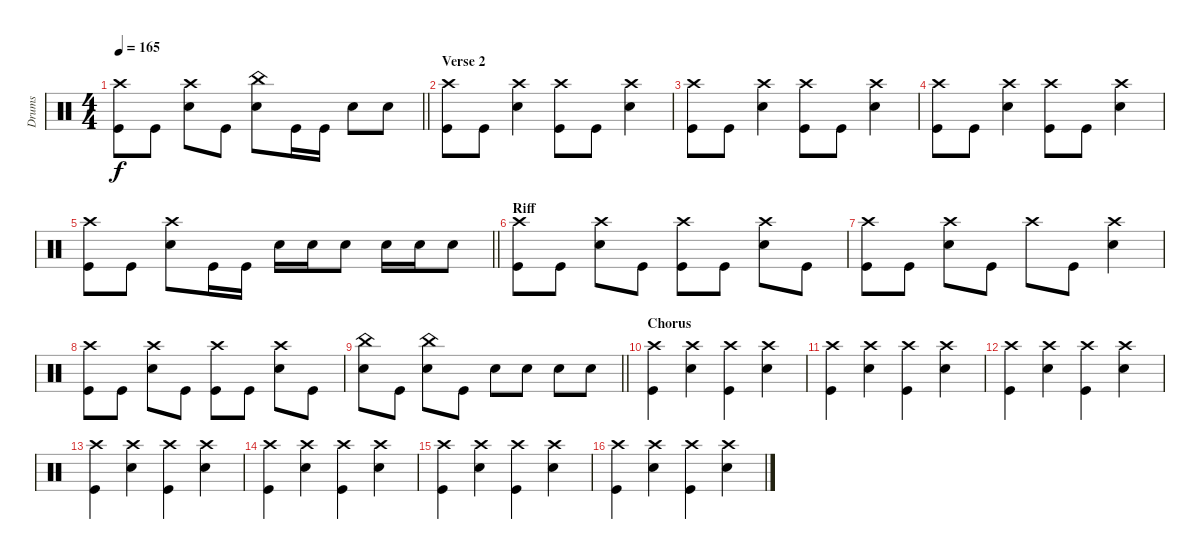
\track ("Drums" "Drums") {instrument percussion}
\staff {score}
\articulation defaults
\ts (4 4)
\tempo 165
\clef neutral
\barLineRight lightlight
\ks c
("Kick (hit)" "Crash high (hit)").8{dy f} "Kick (hit)".8 ("Snare (hit) 2" "Crash high (hit)").8 "Kick (hit)".8 ("Snare (hit) 2" "China (hit)").8 "Kick (hit)".16 "Kick (hit)".16 "Snare (hit) 2".8 "Snare (hit) 2".8 |
\section ("" "Verse 2")
("Kick (hit)" "Crash high (hit)").8 "Kick (hit)".8 ("Snare (hit) 2" "Crash high (hit)").4 ("Kick (hit)" "Crash high (hit)").8 "Kick (hit)".8 ("Snare (hit) 2" "Crash high (hit)").4 |
("Kick (hit)" "Crash high (hit)").8 "Kick (hit)".8 ("Snare (hit) 2" "Crash high (hit)").4 ("Kick (hit)" "Crash high (hit)").8 "Kick (hit)".8 ("Snare (hit) 2" "Crash high (hit)").4 |
("Kick (hit)" "Crash high (hit)").8 "Kick (hit)".8 ("Snare (hit) 2" "Crash high (hit)").4 ("Kick (hit)" "Crash high (hit)").8 "Kick (hit)".8 ("Snare (hit) 2" "Crash high (hit)").4 |
\barLineRight lightlight
("Kick (hit)" "Crash high (hit)").8 "Kick (hit)".8 ("Snare (hit) 2" "Crash high (hit)").8 "Kick (hit)".16 "Kick (hit)".16 "Snare (hit) 2".16 "Snare (hit) 2".16 "Snare (hit) 2".8 "Snare (hit) 2".16 "Snare (hit) 2".16 "Snare (hit) 2".8 |
\section ("" "Riff")
("Kick (hit)" "Crash high (hit)").8 "Kick (hit)".8 ("Snare (hit) 2" "Crash high (hit)").8 "Kick (hit)".8 ("Kick (hit)" "Crash high (hit)").8 "Kick (hit)".8 ("Snare (hit) 2" "Crash high (hit)").8 "Kick (hit)".8 |
("Kick (hit)" "Crash high (hit)").8 "Kick (hit)".8 ("Snare (hit) 2" "Crash high (hit)").8 "Kick (hit)".8 "Crash high (hit)".8 "Kick (hit)".8 ("Snare (hit) 2" "Crash high (hit)").4 |
("Kick (hit)" "Crash high (hit)").8 "Kick (hit)".8 ("Snare (hit) 2" "Crash high (hit)").8 "Kick (hit)".8 ("Kick (hit)" "Crash high (hit)").8 "Kick (hit)".8 ("Snare (hit) 2" "Crash high (hit)").8 "Kick (hit)".8 |
\barLineRight lightlight
("Snare (hit) 2" "China (hit)").8 "Kick (hit)".8 ("Snare (hit) 2" "China (hit)").8 "Kick (hit)".8 "Snare (hit) 2".8 "Snare (hit) 2".8 "Snare (hit) 2".8 "Snare (hit) 2".8 |
\section ("" "Chorus")
("Kick (hit)" "Crash high (hit)").4 ("Snare (hit) 2" "Crash high (hit)").4 ("Kick (hit)" "Crash high (hit)").4 ("Snare (hit) 2" "Crash high (hit)").4 |
("Kick (hit)" "Crash high (hit)").4 ("Snare (hit) 2" "Crash high (hit)").4 ("Kick (hit)" "Crash high (hit)").4 ("Snare (hit) 2" "Crash high (hit)").4 |
("Kick (hit)" "Crash high (hit)").4 ("Snare (hit) 2" "Crash high (hit)").4 ("Kick (hit)" "Crash high (hit)").4 ("Snare (hit) 2" "Crash high (hit)").4 |
("Kick (hit)" "Crash high (hit)").4 ("Snare (hit) 2" "Crash high (hit)").4 ("Kick (hit)" "Crash high (hit)").4 ("Snare (hit) 2" "Crash high (hit)").4 |
("Kick (hit)" "Crash high (hit)").4 ("Snare (hit) 2" "Crash high (hit)").4 ("Kick (hit)" "Crash high (hit)").4 ("Snare (hit) 2" "Crash high (hit)").4 |
("Kick (hit)" "Crash high (hit)").4 ("Snare (hit) 2" "Crash high (hit)").4 ("Kick (hit)" "Crash high (hit)").4 ("Snare (hit) 2" "Crash high (hit)").4 |
("Kick (hit)" "Crash high (hit)").4 ("Snare (hit) 2" "Crash high (hit)").4 ("Kick (hit)" "Crash high (hit)").4 ("Snare (hit) 2" "Crash high (hit)").4
